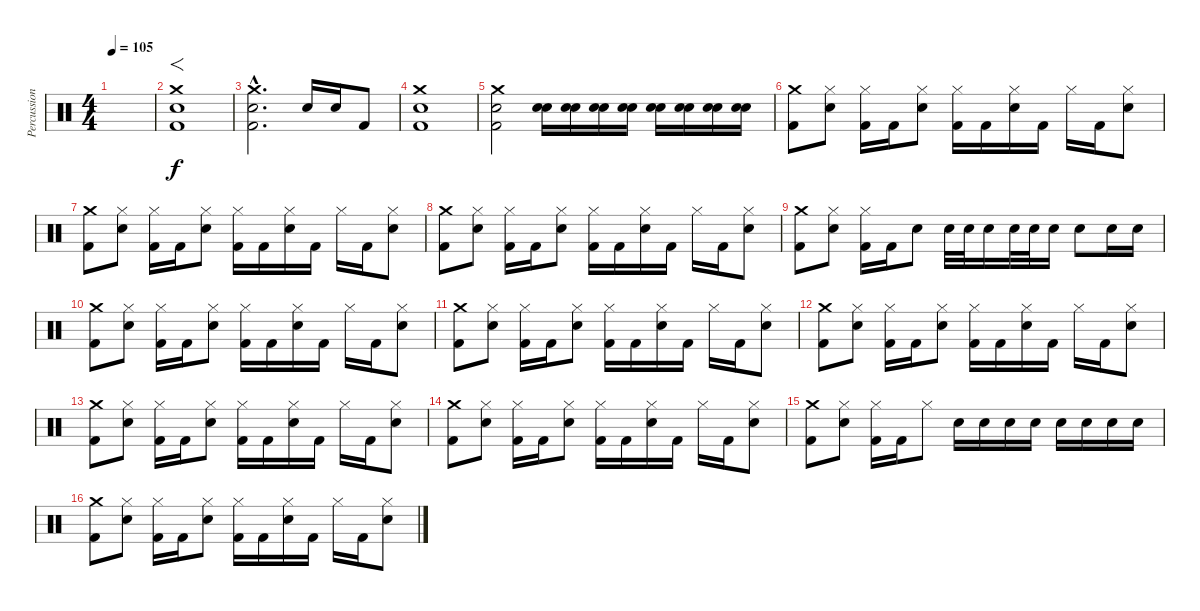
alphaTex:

\track ("Percussions" "Percussion") {instrument percussion}
\staff {score}
\articulation defaults
\ts (4 4)
\tempo 105
\clef neutral
\ks c
|
("Crash medium (hit)" "Snare (hit) 2" "Kick (hit) 2").1{f volume 13} |
("Crash medium (hit)"{hac} "Snare (hit) 2"{hac} "Kick (hit) 2"{hac}).2{d} "Snare (hit) 2".16 "Snare (hit) 2".16 "Kick (hit) 2".8 |
("Crash medium (hit)" "Snare (hit) 2" "Kick (hit) 2").1 |
("Crash medium (hit)" "Snare (hit) 2" "Kick (hit) 2").2 ("Electric Snare (hit)" "Snare (hit) 2").16{volume 16 balance 8} ("Electric Snare (hit)" "Snare (hit) 2").16 ("Electric Snare (hit)" "Snare (hit) 2").16 ("Electric Snare (hit)" "Snare (hit) 2").16 ("Electric Snare (hit)" "Snare (hit) 2").16 ("Electric Snare (hit)" "Snare (hit) 2").16 ("Electric Snare (hit)" "Snare (hit) 2").16 ("Electric Snare (hit)" "Snare (hit) 2").16 |
("Crash medium (hit)" "Kick (hit) 2").8{volume 16} ("Hi-Hat (closed)" "Snare (hit) 2").8 ("Hi-Hat (closed)" "Kick (hit) 2").16 "Kick (hit) 2".16 ("Hi-Hat (closed)" "Snare (hit) 2").8 ("Hi-Hat (closed)" "Kick (hit) 2").16 "Kick (hit) 2".16 ("Hi-Hat (closed)" "Snare (hit) 2").16 "Kick (hit) 2".16 "Hi-Hat (closed)".16 "Kick (hit) 2".16 ("Hi-Hat (closed)" "Snare (hit) 2").8 |
("Crash medium (hit)" "Kick (hit) 2").8 ("Hi-Hat (closed)" "Snare (hit) 2").8 ("Hi-Hat (closed)" "Kick (hit) 2").16 "Kick (hit) 2".16 ("Hi-Hat (closed)" "Snare (hit) 2").8 ("Hi-Hat (closed)" "Kick (hit) 2").16 "Kick (hit) 2".16 ("Hi-Hat (closed)" "Snare (hit) 2").16 "Kick (hit) 2".16 "Hi-Hat (closed)".16 "Kick (hit) 2".16 ("Hi-Hat (closed)" "Snare (hit) 2").8 |
("Crash medium (hit)" "Kick (hit) 2").8 ("Hi-Hat (closed)" "Snare (hit) 2").8 ("Hi-Hat (closed)" "Kick (hit) 2").16 "Kick (hit) 2".16 ("Hi-Hat (closed)" "Snare (hit) 2").8 ("Hi-Hat (closed)" "Kick (hit) 2").16 "Kick (hit) 2".16 ("Hi-Hat (closed)" "Snare (hit) 2").16 "Kick (hit) 2".16 "Hi-Hat (closed)".16 "Kick (hit) 2".16 ("Hi-Hat (closed)" "Snare (hit) 2").8 |
("Crash medium (hit)" "Kick (hit) 2").8 ("Hi-Hat (closed)" "Snare (hit) 2").8 ("Hi-Hat (closed)" "Kick (hit) 2").16 "Kick (hit) 2".16 "Snare (hit) 2".8 "Snare (hit) 2".32 "Snare (hit) 2".32 "Snare (hit) 2".16 "Snare (hit) 2".32 "Snare (hit) 2".32 "Snare (hit) 2".16 "Snare (hit) 2".8 "Snare (hit) 2".16 "Snare (hit) 2".16 |
("Crash medium (hit)" "Kick (hit) 2").8 ("Hi-Hat (closed)" "Snare (hit) 2").8 ("Hi-Hat (closed)" "Kick (hit) 2").16 "Kick (hit) 2".16 ("Hi-Hat (closed)" "Snare (hit) 2").8 ("Hi-Hat (closed)" "Kick (hit) 2").16 "Kick (hit) 2".16 ("Hi-Hat (closed)" "Snare (hit) 2").16 "Kick (hit) 2".16 "Hi-Hat (closed)".16 "Kick (hit) 2".16 ("Hi-Hat (closed)" "Snare (hit) 2").8 |
("Crash medium (hit)" "Kick (hit) 2").8 ("Hi-Hat (closed)" "Snare (hit) 2").8 ("Hi-Hat (closed)" "Kick (hit) 2").16 "Kick (hit) 2".16 ("Hi-Hat (closed)" "Snare (hit) 2").8 ("Hi-Hat (closed)" "Kick (hit) 2").16 "Kick (hit) 2".16 ("Hi-Hat (closed)" "Snare (hit) 2").16 "Kick (hit) 2".16 "Hi-Hat (closed)".16 "Kick (hit) 2".16 ("Hi-Hat (closed)" "Snare (hit) 2").8 |
("Crash medium (hit)" "Kick (hit) 2").8 ("Hi-Hat (closed)" "Snare (hit) 2").8 ("Hi-Hat (closed)" "Kick (hit) 2").16 "Kick (hit) 2".16 ("Hi-Hat (closed)" "Snare (hit) 2").8 ("Hi-Hat (closed)" "Kick (hit) 2").16 "Kick (hit) 2".16 ("Hi-Hat (closed)" "Snare (hit) 2").16 "Kick (hit) 2".16 "Hi-Hat (closed)".16 "Kick (hit) 2".16 ("Hi-Hat (closed)" "Snare (hit) 2").8 |
("Crash medium (hit)" "Kick (hit) 2").8 ("Hi-Hat (closed)" "Snare (hit) 2").8 ("Hi-Hat (closed)" "Kick (hit) 2").16 "Kick (hit) 2".16 ("Hi-Hat (closed)" "Snare (hit) 2").8 ("Hi-Hat (closed)" "Kick (hit) 2").16 "Kick (hit) 2".16 ("Hi-Hat (closed)" "Snare (hit) 2").16 "Kick (hit) 2".16 "Hi-Hat (closed)".16 "Kick (hit) 2".16 ("Hi-Hat (closed)" "Snare (hit) 2").8 |
("Crash medium (hit)" "Kick (hit) 2").8 ("Hi-Hat (closed)" "Snare (hit) 2").8 ("Hi-Hat (closed)" "Kick (hit) 2").16 "Kick (hit) 2".16 ("Hi-Hat (closed)" "Snare (hit) 2").8 ("Hi-Hat (closed)" "Kick (hit) 2").16 "Kick (hit) 2".16 ("Hi-Hat (closed)" "Snare (hit) 2").16 "Kick (hit) 2".16 "Hi-Hat (closed)".16 "Kick (hit) 2".16 ("Hi-Hat (closed)" "Snare (hit) 2").8 |
("Crash medium (hit)" "Kick (hit) 2").8 ("Hi-Hat (closed)" "Snare (hit) 2").8 ("Hi-Hat (closed)" "Kick (hit) 2").16 "Kick (hit) 2".16 "Hi-Hat (closed)".8 "Snare (hit) 2".16 "Snare (hit) 2".16 "Snare (hit) 2".16 "Snare (hit) 2".16 "Snare (hit) 2".16 "Snare (hit) 2".16 "Snare (hit) 2".16 "Snare (hit) 2".16 |
("Crash medium (hit)" "Kick (hit) 2").8 ("Hi-Hat (closed)" "Snare (hit) 2").8 ("Hi-Hat (closed)" "Kick (hit) 2").16 "Kick (hit) 2".16 ("Hi-Hat (closed)" "Snare (hit) 2").8 ("Hi-Hat (closed)" "Kick (hit) 2").16 "Kick (hit) 2".16 ("Hi-Hat (closed)" "Snare (hit) 2").16 "Kick (hit) 2".16 "Hi-Hat (closed)".16 "Kick (hit) 2".16 ("Hi-Hat (closed)" "Snare (hit) 2").8
